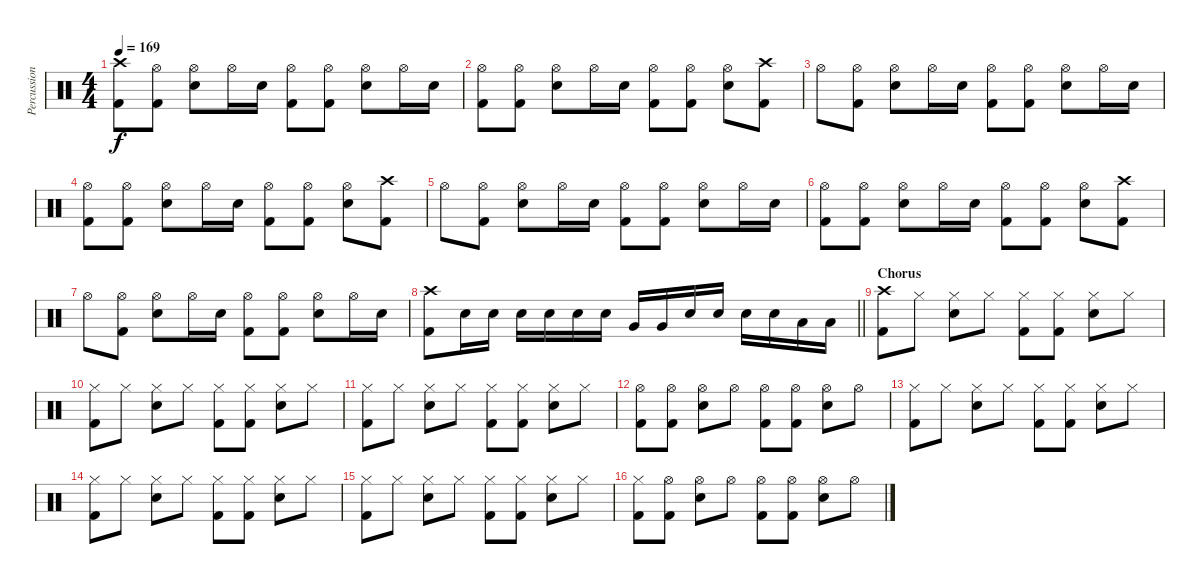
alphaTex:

\track ("Percussion" "Percussion") {instrument percussion}
\staff {score}
\articulation defaults
\ts (4 4)
\tempo 169
\clef neutral
\ks c
("Crash high (hit)" "Kick (hit) 2").8{dy f} ("Hi-Hat (open)" "Kick (hit) 2").8 ("Hi-Hat (open)" "Electric Snare (hit)").8 "Hi-Hat (open)".16 "Electric Snare (hit)".16 ("Hi-Hat (open)" "Kick (hit) 2").8 ("Hi-Hat (open)" "Kick (hit) 2").8 ("Hi-Hat (open)" "Electric Snare (hit)").8 "Hi-Hat (open)".16 "Electric Snare (hit)".16 |
("Hi-Hat (open)" "Kick (hit) 2").8 ("Hi-Hat (open)" "Kick (hit) 2").8 ("Hi-Hat (open)" "Electric Snare (hit)").8 "Hi-Hat (open)".16 "Electric Snare (hit)".16 ("Hi-Hat (open)" "Kick (hit) 2").8 ("Hi-Hat (open)" "Kick (hit) 2").8 ("Hi-Hat (open)" "Electric Snare (hit)").8 ("Crash high (hit)" "Kick (hit) 2").8 |
"Hi-Hat (open)".8 ("Hi-Hat (open)" "Kick (hit) 2").8 ("Hi-Hat (open)" "Electric Snare (hit)").8 "Hi-Hat (open)".16 "Electric Snare (hit)".16 ("Hi-Hat (open)" "Kick (hit) 2").8 ("Hi-Hat (open)" "Kick (hit) 2").8 ("Hi-Hat (open)" "Electric Snare (hit)").8 "Hi-Hat (open)".16 "Electric Snare (hit)".16 |
("Hi-Hat (open)" "Kick (hit) 2").8 ("Hi-Hat (open)" "Kick (hit) 2").8 ("Hi-Hat (open)" "Electric Snare (hit)").8 "Hi-Hat (open)".16 "Electric Snare (hit)".16 ("Hi-Hat (open)" "Kick (hit) 2").8 ("Hi-Hat (open)" "Kick (hit) 2").8 ("Hi-Hat (open)" "Electric Snare (hit)").8 ("Crash high (hit)" "Kick (hit) 2").8 |
"Hi-Hat (open)".8 ("Hi-Hat (open)" "Kick (hit) 2").8 ("Hi-Hat (open)" "Electric Snare (hit)").8 "Hi-Hat (open)".16 "Electric Snare (hit)".16 ("Hi-Hat (open)" "Kick (hit) 2").8 ("Hi-Hat (open)" "Kick (hit) 2").8 ("Hi-Hat (open)" "Electric Snare (hit)").8 "Hi-Hat (open)".16 "Electric Snare (hit)".16 |
("Hi-Hat (open)" "Kick (hit) 2").8 ("Hi-Hat (open)" "Kick (hit) 2").8 ("Hi-Hat (open)" "Electric Snare (hit)").8 "Hi-Hat (open)".16 "Electric Snare (hit)".16 ("Hi-Hat (open)" "Kick (hit) 2").8 ("Hi-Hat (open)" "Kick (hit) 2").8 ("Hi-Hat (open)" "Electric Snare (hit)").8 ("Crash high (hit)" "Kick (hit) 2").8 |
"Hi-Hat (open)".8 ("Hi-Hat (open)" "Kick (hit) 2").8 ("Hi-Hat (open)" "Electric Snare (hit)").8 "Hi-Hat (open)".16 "Electric Snare (hit)".16 ("Hi-Hat (open)" "Kick (hit) 2").8 ("Hi-Hat (open)" "Kick (hit) 2").8 ("Hi-Hat (open)" "Electric Snare (hit)").8 "Hi-Hat (open)".16 "Electric Snare (hit)".16 |
\barLineRight lightlight
("Crash high (hit)" "Kick (hit) 2").8 "Electric Snare (hit)".16 "Electric Snare (hit)".16 "Electric Snare (hit)".16 "Electric Snare (hit)".16 "Electric Snare (hit)".16 "Electric Snare (hit)".16 "Very Low Tom (hit)".16 "Very Low Tom (hit)".16 "Electric Snare (hit)".16 "Electric Snare (hit)".16 "Electric Snare (hit)".16 "Electric Snare (hit)".16 "Low Floor Tom (hit)".16 "Low Floor Tom (hit)".16 |
\section ("" "Chorus")
("Crash high (hit)" "Kick (hit) 2").8 "Hi-Hat (closed)".8 ("Hi-Hat (closed)" "Electric Snare (hit)").8 "Hi-Hat (closed)".8 ("Hi-Hat (closed)" "Kick (hit) 2").8 ("Hi-Hat (closed)" "Kick (hit) 2").8 ("Hi-Hat (closed)" "Electric Snare (hit)").8 "Hi-Hat (closed)".8 |
("Hi-Hat (closed)" "Kick (hit) 2").8 "Hi-Hat (closed)".8 ("Hi-Hat (closed)" "Electric Snare (hit)").8 "Hi-Hat (closed)".8 ("Hi-Hat (closed)" "Kick (hit) 2").8 ("Hi-Hat (closed)" "Kick (hit) 2").8 ("Hi-Hat (closed)" "Electric Snare (hit)").8 "Hi-Hat (closed)".8 |
("Hi-Hat (closed)" "Kick (hit) 2").8 "Hi-Hat (closed)".8 ("Hi-Hat (closed)" "Electric Snare (hit)").8 "Hi-Hat (closed)".8 ("Hi-Hat (closed)" "Kick (hit) 2").8 ("Hi-Hat (closed)" "Kick (hit) 2").8 ("Hi-Hat (closed)" "Electric Snare (hit)").8 "Hi-Hat (closed)".8 |
("Hi-Hat (open)" "Kick (hit) 2").8 ("Hi-Hat (open)" "Kick (hit) 2").8 ("Hi-Hat (open)" "Electric Snare (hit)").8 "Hi-Hat (open)".8 ("Hi-Hat (open)" "Kick (hit) 2").8 ("Hi-Hat (open)" "Kick (hit) 2").8 ("Hi-Hat (open)" "Electric Snare (hit)").8 "Hi-Hat (open)".8 |
("Hi-Hat (closed)" "Kick (hit) 2").8 "Hi-Hat (closed)".8 ("Hi-Hat (closed)" "Electric Snare (hit)").8 "Hi-Hat (closed)".8 ("Hi-Hat (closed)" "Kick (hit) 2").8 ("Hi-Hat (closed)" "Kick (hit) 2").8 ("Hi-Hat (closed)" "Electric Snare (hit)").8 "Hi-Hat (closed)".8 |
("Hi-Hat (closed)" "Kick (hit) 2").8 "Hi-Hat (closed)".8 ("Hi-Hat (closed)" "Electric Snare (hit)").8 "Hi-Hat (closed)".8 ("Hi-Hat (closed)" "Kick (hit) 2").8 ("Hi-Hat (closed)" "Kick (hit) 2").8 ("Hi-Hat (closed)" "Electric Snare (hit)").8 "Hi-Hat (closed)".8 |
("Hi-Hat (closed)" "Kick (hit) 2").8 "Hi-Hat (closed)".8 ("Hi-Hat (closed)" "Electric Snare (hit)").8 "Hi-Hat (closed)".8 ("Hi-Hat (closed)" "Kick (hit) 2").8 ("Hi-Hat (closed)" "Kick (hit) 2").8 ("Hi-Hat (closed)" "Electric Snare (hit)").8 "Hi-Hat (closed)".8 |
("Hi-Hat (closed)" "Kick (hit) 2").8 ("Hi-Hat (open)" "Kick (hit) 2").8 ("Hi-Hat (open)" "Electric Snare (hit)").8 "Hi-Hat (open)".8 ("Hi-Hat (open)" "Kick (hit) 2").8 ("Hi-Hat (open)" "Kick (hit) 2").8 ("Hi-Hat (open)" "Electric Snare (hit)").8 "Hi-Hat (open)".8
